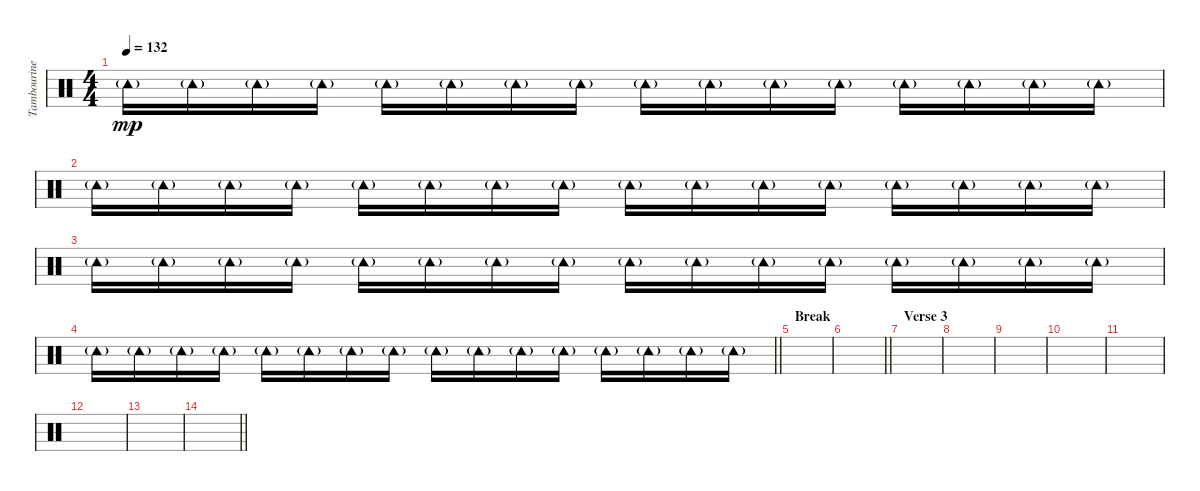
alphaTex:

\track ("Tambourine" "Tambourine") {instrument percussion}
\staff {score}
\articulation defaults
\ts (4 4)
\tempo 132
\clef neutral
\ks c "Tambourine (hit)"{g}.16{dy mp} "Tambourine (hit)"{g}.16 "Tambourine (hit)"{g}.16 "Tambourine (hit)"{g}.16 "Tambourine (hit)"{g}.16 "Tambourine (hit)"{g}.16 "Tambourine (hit)"{g}.16 "Tambourine (hit)"{g}.16 "Tambourine (hit)"{g}.16 "Tambourine (hit)"{g}.16 "Tambourine (hit)"{g}.16 "Tambourine (hit)"{g}.16 "Tambourine (hit)"{g}.16 "Tambourine (hit)"{g}.16 "Tambourine (hit)"{g}.16 "Tambourine (hit)"{g}.16
|
"Tambourine (hit)"{g}.16 "Tambourine (hit)"{g}.16 "Tambourine (hit)"{g}.16 "Tambourine (hit)"{g}.16 "Tambourine (hit)"{g}.16 "Tambourine (hit)"{g}.16 "Tambourine (hit)"{g}.16 "Tambourine (hit)"{g}.16 "Tambourine (hit)"{g}.16 "Tambourine (hit)"{g}.16 "Tambourine (hit)"{g}.16 "Tambourine (hit)"{g}.16 "Tambourine (hit)"{g}.16 "Tambourine (hit)"{g}.16 "Tambourine (hit)"{g}.16 "Tambourine (hit)"{g}.16 |
"Tambourine (hit)"{g}.16 "Tambourine (hit)"{g}.16 "Tambourine (hit)"{g}.16 "Tambourine (hit)"{g}.16 "Tambourine (hit)"{g}.16 "Tambourine (hit)"{g}.16 "Tambourine (hit)"{g}.16 "Tambourine (hit)"{g}.16 "Tambourine (hit)"{g}.16 "Tambourine (hit)"{g}.16 "Tambourine (hit)"{g}.16 "Tambourine (hit)"{g}.16 "Tambourine (hit)"{g}.16 "Tambourine (hit)"{g}.16 "Tambourine (hit)"{g}.16 "Tambourine (hit)"{g}.16 |
\barLineRight lightlight "Tambourine (hit)"{g}.16 "Tambourine (hit)"{g}.16 "Tambourine (hit)"{g}.16 "Tambourine (hit)"{g}.16 "Tambourine (hit)"{g}.16 "Tambourine (hit)"{g}.16 "Tambourine (hit)"{g}.16 "Tambourine (hit)"{g}.16 "Tambourine (hit)"{g}.16 "Tambourine (hit)"{g}.16 "Tambourine (hit)"{g}.16 "Tambourine (hit)"{g}.16 "Tambourine (hit)"{g}.16 "Tambourine (hit)"{g}.16 "Tambourine (hit)"{g}.16 "Tambourine (hit)"{g}.16
|
\section ("" "Break")
|
\barLineRight lightlight
|
\section ("" "Verse 3")
|
|
|
|
|
|
|
\barLineRight lightlight
